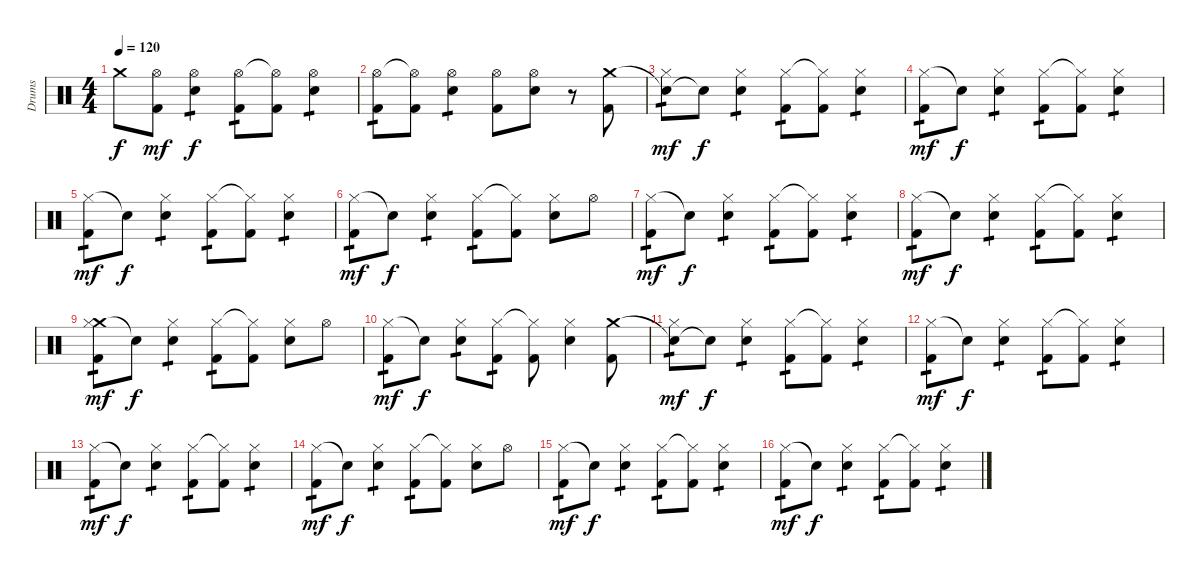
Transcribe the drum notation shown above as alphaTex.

\track ("Drums" "Drums") {instrument percussion}
\staff {score}
\articulation defaults
\ts (4 4)
\tempo 120
\clef neutral
\ks c "Crash medium (hit)"{t}.8{dy f}
("Hi-Hat (open)" "Kick (hit) 2").8{dy mf} ("Hi-Hat (open)" "Electric Snare (hit)").4{tp 1 dy f} ("Hi-Hat (open)" "Kick (hit) 2").8{tp 1} ("Hi-Hat (open)"{t} "Kick (hit) 2").8 ("Hi-Hat (open)" "Electric Snare (hit)").4{tp 1} |
("Hi-Hat (open)" "Kick (hit) 2").8{tp 1} ("Hi-Hat (open)"{t} "Kick (hit) 2").8 ("Hi-Hat (open)" "Electric Snare (hit)").4{tp 1} ("Hi-Hat (open)" "Kick (hit) 2").8 ("Hi-Hat (open)" "Electric Snare (hit)").8 r.8 ("Crash medium (hit)" "Kick (hit) 2").8 |
("Snare (hit)"{t} "Hi-Hat (closed)").8{tp 1 dy mf} "Snare (hit)"{t}.8{dy f} ("Hi-Hat (closed)" "Electric Snare (hit)").4{tp 1} ("Hi-Hat (closed)" "Kick (hit) 2").8{tp 1} ("Hi-Hat (closed)"{t} "Kick (hit) 2").8 ("Hi-Hat (closed)" "Electric Snare (hit)").4{tp 1} |
("Hi-Hat (closed)" "Kick (hit) 2").8{tp 1 dy mf} "Snare (hit)"{t}.8{dy f} ("Hi-Hat (closed)" "Electric Snare (hit)").4{tp 1} ("Hi-Hat (closed)" "Kick (hit) 2").8{tp 1} ("Hi-Hat (closed)"{t} "Kick (hit) 2").8 ("Hi-Hat (closed)" "Electric Snare (hit)").4{tp 1} |
("Hi-Hat (closed)" "Kick (hit) 2").8{tp 1 dy mf} "Snare (hit)"{t}.8{dy f} ("Hi-Hat (closed)" "Electric Snare (hit)").4{tp 1} ("Hi-Hat (closed)" "Kick (hit) 2").8{tp 1} ("Hi-Hat (closed)"{t} "Kick (hit) 2").8 ("Hi-Hat (closed)" "Electric Snare (hit)").4{tp 1} |
("Hi-Hat (closed)" "Kick (hit) 2").8{tp 1 dy mf} "Snare (hit)"{t}.8{dy f} ("Hi-Hat (closed)" "Electric Snare (hit)").4{tp 1} ("Hi-Hat (closed)" "Kick (hit) 2").8{tp 1} ("Hi-Hat (closed)"{t} "Kick (hit) 2").8 ("Hi-Hat (closed)" "Electric Snare (hit)").8 "Hi-Hat (open)".8 |
("Hi-Hat (closed)" "Kick (hit) 2").8{tp 1 dy mf} "Snare (hit)"{t}.8{dy f} ("Hi-Hat (closed)" "Electric Snare (hit)").4{tp 1} ("Hi-Hat (closed)" "Kick (hit) 2").8{tp 1} ("Hi-Hat (closed)"{t} "Kick (hit) 2").8 ("Hi-Hat (closed)" "Electric Snare (hit)").4{tp 1} |
("Hi-Hat (closed)" "Kick (hit) 2").8{tp 1 dy mf} "Snare (hit)"{t}.8{dy f} ("Hi-Hat (closed)" "Electric Snare (hit)").4{tp 1} ("Hi-Hat (closed)" "Kick (hit) 2").8{tp 1} ("Hi-Hat (closed)"{t} "Kick (hit) 2").8 ("Hi-Hat (closed)" "Electric Snare (hit)").4{tp 1} |
("Crash medium (hit)" "Hi-Hat (closed)" "Kick (hit) 2").8{tp 1 dy mf} "Snare (hit)"{t}.8{dy f} ("Hi-Hat (closed)" "Electric Snare (hit)").4{tp 1} ("Hi-Hat (closed)" "Kick (hit) 2").8{tp 1} ("Hi-Hat (closed)"{t} "Kick (hit) 2").8 ("Hi-Hat (closed)" "Electric Snare (hit)").8 "Hi-Hat (open)".8 |
("Hi-Hat (closed)" "Kick (hit) 2").8{tp 1 dy mf} "Snare (hit)"{t}.8{dy f} ("Hi-Hat (closed)" "Electric Snare (hit)").8{tp 1} ("Hi-Hat (closed)" "Kick (hit) 2").8{tp 1} ("Hi-Hat (closed)"{t} "Kick (hit) 2").8 ("Hi-Hat (closed)" "Electric Snare (hit)").4 ("Crash medium (hit)" "Kick (hit) 2").8 |
("Snare (hit)"{t} "Hi-Hat (closed)").8{tp 1 dy mf} "Snare (hit)"{t}.8{dy f} ("Hi-Hat (closed)" "Electric Snare (hit)").4{tp 1} ("Hi-Hat (closed)" "Kick (hit) 2").8{tp 1} ("Hi-Hat (closed)"{t} "Kick (hit) 2").8 ("Hi-Hat (closed)" "Electric Snare (hit)").4{tp 1} |
("Hi-Hat (closed)" "Kick (hit) 2").8{tp 1 dy mf} "Snare (hit)"{t}.8{dy f} ("Hi-Hat (closed)" "Electric Snare (hit)").4{tp 1} ("Hi-Hat (closed)" "Kick (hit) 2").8{tp 1} ("Hi-Hat (closed)"{t} "Kick (hit) 2").8 ("Hi-Hat (closed)" "Electric Snare (hit)").4{tp 1} |
("Hi-Hat (closed)" "Kick (hit) 2").8{tp 1 dy mf} "Snare (hit)"{t}.8{dy f} ("Hi-Hat (closed)" "Electric Snare (hit)").4{tp 1} ("Hi-Hat (closed)" "Kick (hit) 2").8{tp 1} ("Hi-Hat (closed)"{t} "Kick (hit) 2").8 ("Hi-Hat (closed)" "Electric Snare (hit)").4{tp 1} |
("Hi-Hat (closed)" "Kick (hit) 2").8{tp 1 dy mf} "Snare (hit)"{t}.8{dy f} ("Hi-Hat (closed)" "Electric Snare (hit)").4{tp 1} ("Hi-Hat (closed)" "Kick (hit) 2").8{tp 1} ("Hi-Hat (closed)"{t} "Kick (hit) 2").8 ("Hi-Hat (closed)" "Electric Snare (hit)").8 "Hi-Hat (open)".8 |
("Hi-Hat (closed)" "Kick (hit) 2").8{tp 1 dy mf} "Snare (hit)"{t}.8{dy f} ("Hi-Hat (closed)" "Electric Snare (hit)").4{tp 1} ("Hi-Hat (closed)" "Kick (hit) 2").8{tp 1} ("Hi-Hat (closed)"{t} "Kick (hit) 2").8 ("Hi-Hat (closed)" "Electric Snare (hit)").4{tp 1} |
("Hi-Hat (closed)" "Kick (hit) 2").8{tp 1 dy mf} "Snare (hit)"{t}.8{dy f} ("Hi-Hat (closed)" "Electric Snare (hit)").4{tp 1} ("Hi-Hat (closed)" "Kick (hit) 2").8{tp 1} ("Hi-Hat (closed)"{t} "Kick (hit) 2").8 ("Hi-Hat (closed)" "Electric Snare (hit)").4{tp 1}
